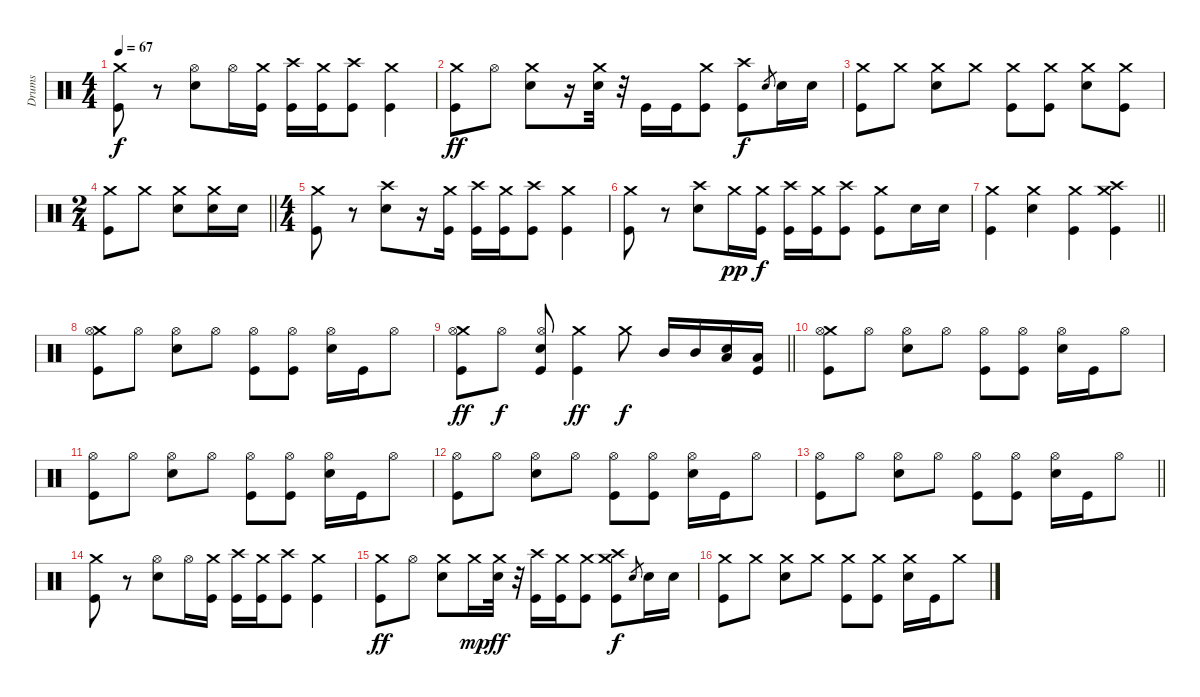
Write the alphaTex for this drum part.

\track ("Drums" "Drums") {instrument percussion}
\staff {score}
\articulation defaults
\ts (4 4)
\tempo 67
\clef neutral
\ks c
("Crash medium (hit)" "Kick (hit)").8{dy f} r.8 ("Hi-Hat (open)" "Snare (hit) 2").8 "Hi-Hat (open)".16 ("Crash medium (hit)" "Kick (hit)").16 ("Crash high (hit)" "Kick (hit)").16 ("Crash medium (hit)" "Kick (hit)").16 ("Crash high (hit)" "Kick (hit)").8 ("Crash medium (hit)" "Kick (hit)").4 |
("Crash medium (hit)" "Kick (hit)").8{dy ff} "Hi-Hat (open)".8 ("Crash medium (hit)" "Snare (hit) 2").8 r.16 ("Crash medium (hit)" "Snare (hit) 2").32 r.32 "Kick (hit)".16 "Kick (hit)".16 ("Crash medium (hit)" "Kick (hit)").8 ("Crash high (hit)" "Kick (hit)").8{dy f} "Snare (hit) 2".8{gr} "Snare (hit) 2".16 "Snare (hit) 2".16 |
("Crash medium (hit)" "Kick (hit)").8 "Crash medium (hit)".8 ("Crash medium (hit)" "Snare (hit) 2").8 "Crash medium (hit)".8 ("Crash medium (hit)" "Kick (hit)").8 ("Crash medium (hit)" "Kick (hit)").8 ("Crash medium (hit)" "Snare (hit) 2").8 ("Crash medium (hit)" "Kick (hit)").8 |
\ts (2 4)
\barLineRight lightlight
("Crash medium (hit)" "Kick (hit)").8 "Crash medium (hit)".8 ("Crash medium (hit)" "Snare (hit) 2").8 ("Crash medium (hit)" "Snare (hit) 2").16 "Snare (hit) 2".16 |
\ts (4 4)
("Crash medium (hit)" "Kick (hit)").8 r.8 ("Crash high (hit)" "Snare (hit) 2").8 r.16 ("Crash medium (hit)" "Kick (hit)").16 ("Crash high (hit)" "Kick (hit)").16 ("Crash medium (hit)" "Kick (hit)").16 ("Crash high (hit)" "Kick (hit)").8 ("Crash medium (hit)" "Kick (hit)").4 |
("Crash medium (hit)" "Kick (hit)").8 r.8 ("Crash high (hit)" "Snare (hit) 2").8 "Crash medium (hit)".16{dy pp} ("Crash medium (hit)" "Kick (hit)").16{dy f} ("Crash high (hit)" "Kick (hit)").16 ("Crash medium (hit)" "Kick (hit)").16 ("Crash high (hit)" "Kick (hit)").8 ("Crash medium (hit)" "Kick (hit)").8 "Snare (hit) 2".16 "Snare (hit) 2".16 |
\barLineRight lightlight
("Crash medium (hit)" "Kick (hit)").4 ("Crash medium (hit)" "Snare (hit) 2").4 ("Crash medium (hit)" "Kick (hit)").4 ("Crash medium (hit)" "Crash high (hit)" "Kick (hit)").4 |
("Crash medium (hit)" "Hi-Hat (open)" "Kick (hit)").8 "Hi-Hat (open)".8 ("Hi-Hat (open)" "Snare (hit) 2").8 "Hi-Hat (open)".8 ("Hi-Hat (open)" "Kick (hit)").8 ("Hi-Hat (open)" "Kick (hit)").8 ("Hi-Hat (open)" "Snare (hit) 2").16 "Kick (hit)".16 "Hi-Hat (open)".8 |
\barLineRight lightlight
("Crash medium (hit)" "Hi-Hat (open)" "Kick (hit)").8{dy ff} "Hi-Hat (open)".8{dy f} ("Hi-Hat (open)" "Snare (hit) 2" "Kick (hit)").8 ("Crash medium (hit)" "Kick (hit)").4{dy ff} "Crash medium (hit)".8{dy f} "Mid Tom (hit)".16 "Mid Tom (hit)".16 ("Snare (hit) 2" "Low Tom (hit)").16 ("Kick (hit)" "Low Tom (hit)").16 |
("Crash medium (hit)" "Hi-Hat (open)" "Kick (hit)").8 "Hi-Hat (open)".8 ("Hi-Hat (open)" "Snare (hit) 2").8 "Hi-Hat (open)".8 ("Hi-Hat (open)" "Kick (hit)").8 ("Hi-Hat (open)" "Kick (hit)").8 ("Hi-Hat (open)" "Snare (hit) 2").16 "Kick (hit)".16 "Hi-Hat (open)".8 |
("Hi-Hat (open)" "Kick (hit)").8 "Hi-Hat (open)".8 ("Hi-Hat (open)" "Snare (hit) 2").8 "Hi-Hat (open)".8 ("Hi-Hat (open)" "Kick (hit)").8 ("Hi-Hat (open)" "Kick (hit)").8 ("Hi-Hat (open)" "Snare (hit) 2").16 "Kick (hit)".16 "Hi-Hat (open)".8 |
("Hi-Hat (open)" "Kick (hit)").8 "Hi-Hat (open)".8 ("Hi-Hat (open)" "Snare (hit) 2").8 "Hi-Hat (open)".8 ("Hi-Hat (open)" "Kick (hit)").8 ("Hi-Hat (open)" "Kick (hit)").8 ("Hi-Hat (open)" "Snare (hit) 2").16 "Kick (hit)".16 "Hi-Hat (open)".8 |
\barLineRight lightlight
("Hi-Hat (open)" "Kick (hit)").8 "Hi-Hat (open)".8 ("Hi-Hat (open)" "Snare (hit) 2").8 "Hi-Hat (open)".8 ("Hi-Hat (open)" "Kick (hit)").8 ("Hi-Hat (open)" "Kick (hit)").8 ("Hi-Hat (open)" "Snare (hit) 2").16 "Kick (hit)".16 "Hi-Hat (open)".8 |
("Crash medium (hit)" "Kick (hit)").8 r.8 ("Hi-Hat (open)" "Snare (hit) 2").8 "Hi-Hat (open)".16 ("Crash medium (hit)" "Kick (hit)").16 ("Crash high (hit)" "Kick (hit)").16 ("Crash medium (hit)" "Kick (hit)").16 ("Crash high (hit)" "Kick (hit)").8 ("Crash medium (hit)" "Kick (hit)").4 |
("Crash medium (hit)" "Kick (hit)").8{dy ff} "Hi-Hat (open)".8 ("Crash medium (hit)" "Snare (hit) 2").8 "Crash medium (hit)".16{dy mp} ("Crash medium (hit)" "Snare (hit) 2").32{dy ff} r.32 ("Crash high (hit)" "Kick (hit)").16 ("Crash medium (hit)" "Kick (hit)").16 ("Crash medium (hit)" "Kick (hit)").8 ("Crash high (hit)" "Crash medium (hit)" "Kick (hit)").8{dy f} "Snare (hit) 2".8{gr} "Snare (hit) 2".16 "Snare (hit) 2".16 |
("Crash medium (hit)" "Kick (hit)").8 "Crash medium (hit)".8 ("Crash medium (hit)" "Snare (hit) 2").8 "Crash medium (hit)".8 ("Crash medium (hit)" "Kick (hit)").8 ("Crash medium (hit)" "Kick (hit)").8 ("Crash medium (hit)" "Snare (hit) 2").16 "Kick (hit)".16 "Crash medium (hit)".8
